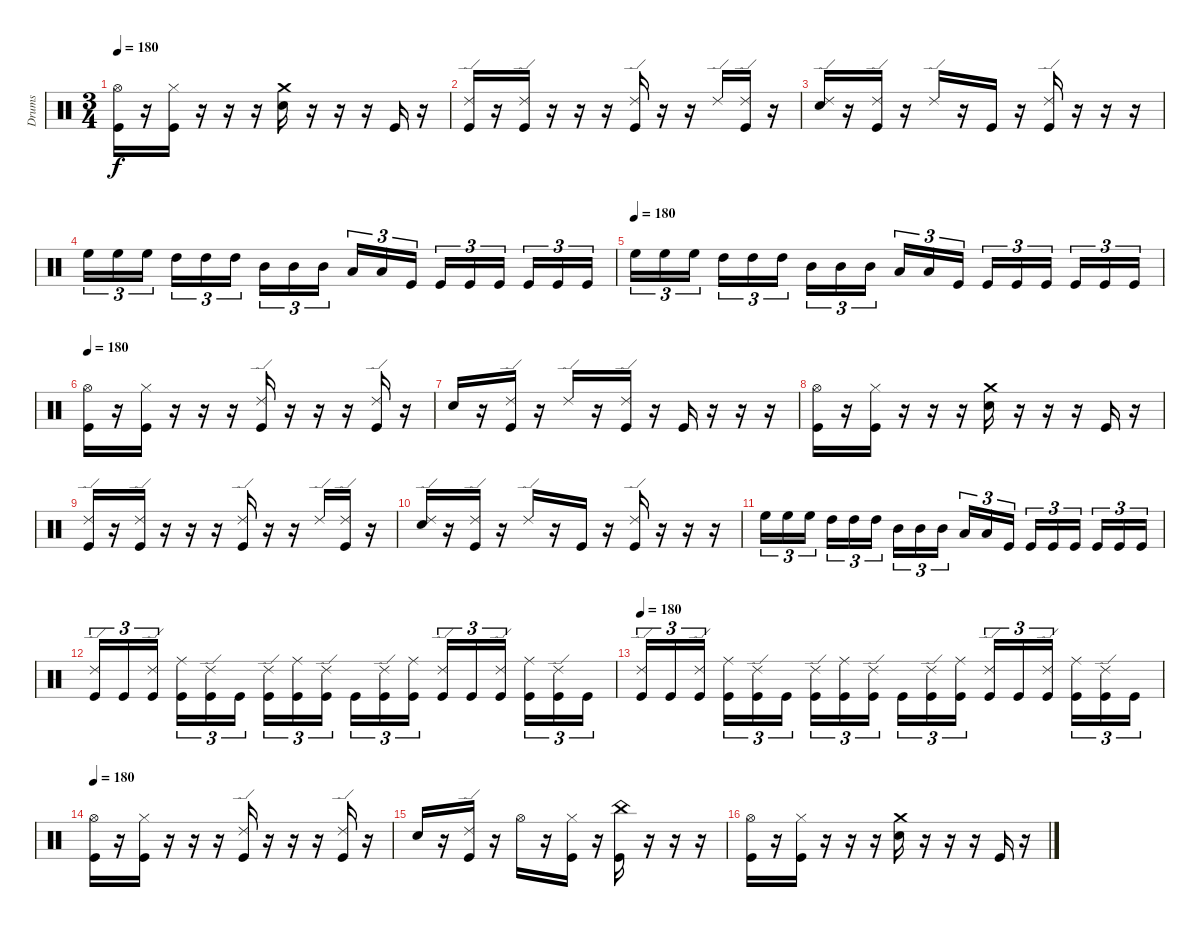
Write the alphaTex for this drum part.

\track ("Drums" "Drums") {instrument percussion}
\staff {score}
\articulation defaults
\ts (3 4)
\tempo 180
\clef neutral
\ks c
("Hi-Hat (open)" "Kick (hit)").16{dy f} r.16 ("Hi-Hat (closed)" "Kick (hit)").16 r.16 r.16 r.16 ("Crash medium (hit)" "Electric Snare (hit)").16 r.16 r.16 r.16 "Kick (hit)".16 r.16 |
("Ride (edge) 2" "Kick (hit)").16 r.16 ("Ride (edge) 2" "Kick (hit)").16 r.16 r.16 r.16 ("Ride (edge) 2" "Kick (hit)").16 r.16 r.16 "Ride (edge) 2".16 ("Ride (edge) 2" "Kick (hit)").16 r.16 |
("Ride (edge) 2" "Electric Snare (hit)").16 r.16 ("Ride (edge) 2" "Kick (hit)").16 r.16 "Ride (edge) 2".16 r.16 "Kick (hit)".16 r.16 ("Ride (edge) 2" "Kick (hit)").16 r.16 r.16 r.16 |
"High Floor Tom (hit)".16{tu (3 2)} "High Floor Tom (hit)".16{tu (3 2)} "High Floor Tom (hit)".16{tu (3 2)} "High Tom (hit)".16{tu (3 2)} "High Tom (hit)".16{tu (3 2)} "High Tom (hit)".16{tu (3 2)} "Mid Tom (hit)".16{tu (3 2)} "Mid Tom (hit)".16{tu (3 2)} "Mid Tom (hit)".16{tu (3 2)} "Low Tom (hit)".16{tu (3 2)} "Low Tom (hit)".16{tu (3 2)} "Kick (hit)".16{tu (3 2)} "Kick (hit)".16{tu (3 2)} "Kick (hit)".16{tu (3 2)} "Kick (hit)".16{tu (3 2)} "Kick (hit)".16{tu (3 2)} "Kick (hit)".16{tu (3 2)} "Kick (hit)".16{tu (3 2)} |
\tempo (180)
"High Floor Tom (hit)".16{tu (3 2)} "High Floor Tom (hit)".16{tu (3 2)} "High Floor Tom (hit)".16{tu (3 2)} "High Tom (hit)".16{tu (3 2)} "High Tom (hit)".16{tu (3 2)} "High Tom (hit)".16{tu (3 2)} "Mid Tom (hit)".16{tu (3 2)} "Mid Tom (hit)".16{tu (3 2)} "Mid Tom (hit)".16{tu (3 2)} "Low Tom (hit)".16{tu (3 2)} "Low Tom (hit)".16{tu (3 2)} "Kick (hit)".16{tu (3 2)} "Kick (hit)".16{tu (3 2)} "Kick (hit)".16{tu (3 2)} "Kick (hit)".16{tu (3 2)} "Kick (hit)".16{tu (3 2)} "Kick (hit)".16{tu (3 2)} "Kick (hit)".16{tu (3 2)} |
\tempo 180
("Hi-Hat (open)" "Kick (hit)").16 r.16 ("Hi-Hat (closed)" "Kick (hit)").16 r.16 r.16 r.16 ("Ride (edge) 2" "Kick (hit)").16 r.16 r.16 r.16 ("Ride (edge) 2" "Kick (hit)").16 r.16 |
"Electric Snare (hit)".16 r.16 ("Ride (edge) 2" "Kick (hit)").16 r.16 "Ride (edge) 2".16 r.16 ("Ride (edge) 2" "Kick (hit)").16 r.16 "Kick (hit)".16 r.16 r.16 r.16 |
("Hi-Hat (open)" "Kick (hit)").16 r.16 ("Hi-Hat (closed)" "Kick (hit)").16 r.16 r.16 r.16 ("Crash medium (hit)" "Electric Snare (hit)").16 r.16 r.16 r.16 "Kick (hit)".16 r.16 |
("Ride (edge) 2" "Kick (hit)").16 r.16 ("Ride (edge) 2" "Kick (hit)").16 r.16 r.16 r.16 ("Ride (edge) 2" "Kick (hit)").16 r.16 r.16 "Ride (edge) 2".16 ("Ride (edge) 2" "Kick (hit)").16 r.16 |
("Ride (edge) 2" "Electric Snare (hit)").16 r.16 ("Ride (edge) 2" "Kick (hit)").16 r.16 "Ride (edge) 2".16 r.16 "Kick (hit)".16 r.16 ("Ride (edge) 2" "Kick (hit)").16 r.16 r.16 r.16 |
"High Floor Tom (hit)".16{tu (3 2)} "High Floor Tom (hit)".16{tu (3 2)} "High Floor Tom (hit)".16{tu (3 2)} "High Tom (hit)".16{tu (3 2)} "High Tom (hit)".16{tu (3 2)} "High Tom (hit)".16{tu (3 2)} "Mid Tom (hit)".16{tu (3 2)} "Mid Tom (hit)".16{tu (3 2)} "Mid Tom (hit)".16{tu (3 2)} "Low Tom (hit)".16{tu (3 2)} "Low Tom (hit)".16{tu (3 2)} "Kick (hit)".16{tu (3 2)} "Kick (hit)".16{tu (3 2)} "Kick (hit)".16{tu (3 2)} "Kick (hit)".16{tu (3 2)} "Kick (hit)".16{tu (3 2)} "Kick (hit)".16{tu (3 2)} "Kick (hit)".16{tu (3 2)} |
("Ride (edge) 2" "Kick (hit)").16{tu (3 2)} "Kick (hit)".16{tu (3 2)} ("Ride (edge) 2" "Kick (hit)").16{tu (3 2)} ("Ride (middle)" "Kick (hit)").16{tu (3 2)} ("Ride (edge) 2" "Kick (hit)").16{tu (3 2)} "Kick (hit)".16{tu (3 2)} ("Ride (edge) 2" "Kick (hit)").16{tu (3 2)} ("Ride (middle)" "Kick (hit)").16{tu (3 2)} ("Ride (edge) 2" "Kick (hit)").16{tu (3 2)} "Kick (hit)".16{tu (3 2)} ("Ride (edge) 2" "Kick (hit)").16{tu (3 2)} ("Ride (middle)" "Kick (hit)").16{tu (3 2)} ("Ride (edge) 2" "Kick (hit)").16{tu (3 2)} "Kick (hit)".16{tu (3 2)} ("Ride (edge) 2" "Kick (hit)").16{tu (3 2)} ("Ride (middle)" "Kick (hit)").16{tu (3 2)} ("Ride (edge) 2" "Kick (hit)").16{tu (3 2)} "Kick (hit)".16{tu (3 2)} |
\tempo 180
("Ride (edge) 2" "Kick (hit)").16{tu (3 2)} "Kick (hit)".16{tu (3 2)} ("Ride (edge) 2" "Kick (hit)").16{tu (3 2)} ("Ride (middle)" "Kick (hit)").16{tu (3 2)} ("Ride (edge) 2" "Kick (hit)").16{tu (3 2)} "Kick (hit)".16{tu (3 2)} ("Ride (edge) 2" "Kick (hit)").16{tu (3 2)} ("Ride (middle)" "Kick (hit)").16{tu (3 2)} ("Ride (edge) 2" "Kick (hit)").16{tu (3 2)} "Kick (hit)".16{tu (3 2)} ("Ride (edge) 2" "Kick (hit)").16{tu (3 2)} ("Ride (middle)" "Kick (hit)").16{tu (3 2)} ("Ride (edge) 2" "Kick (hit)").16{tu (3 2)} "Kick (hit)".16{tu (3 2)} ("Ride (edge) 2" "Kick (hit)").16{tu (3 2)} ("Ride (middle)" "Kick (hit)").16{tu (3 2)} ("Ride (edge) 2" "Kick (hit)").16{tu (3 2)} "Kick (hit)".16{tu (3 2)} |
\tempo 180
("Hi-Hat (open)" "Kick (hit)").16 r.16 ("Hi-Hat (closed)" "Kick (hit)").16 r.16 r.16 r.16 ("Ride (edge) 2" "Kick (hit)").16 r.16 r.16 r.16 ("Ride (edge) 2" "Kick (hit)").16 r.16 |
"Electric Snare (hit)".16 r.16 ("Ride (edge) 2" "Kick (hit)").16 r.16 "Hi-Hat (open)".16 r.16 ("Hi-Hat (closed)" "Kick (hit)").16 r.16 ("China (hit)" "Kick (hit)").16 r.16 r.16 r.16 |
("Hi-Hat (open)" "Kick (hit)").16 r.16 ("Hi-Hat (closed)" "Kick (hit)").16 r.16 r.16 r.16 ("Crash medium (hit)" "Electric Snare (hit)").16 r.16 r.16 r.16 "Kick (hit)".16 r.16
